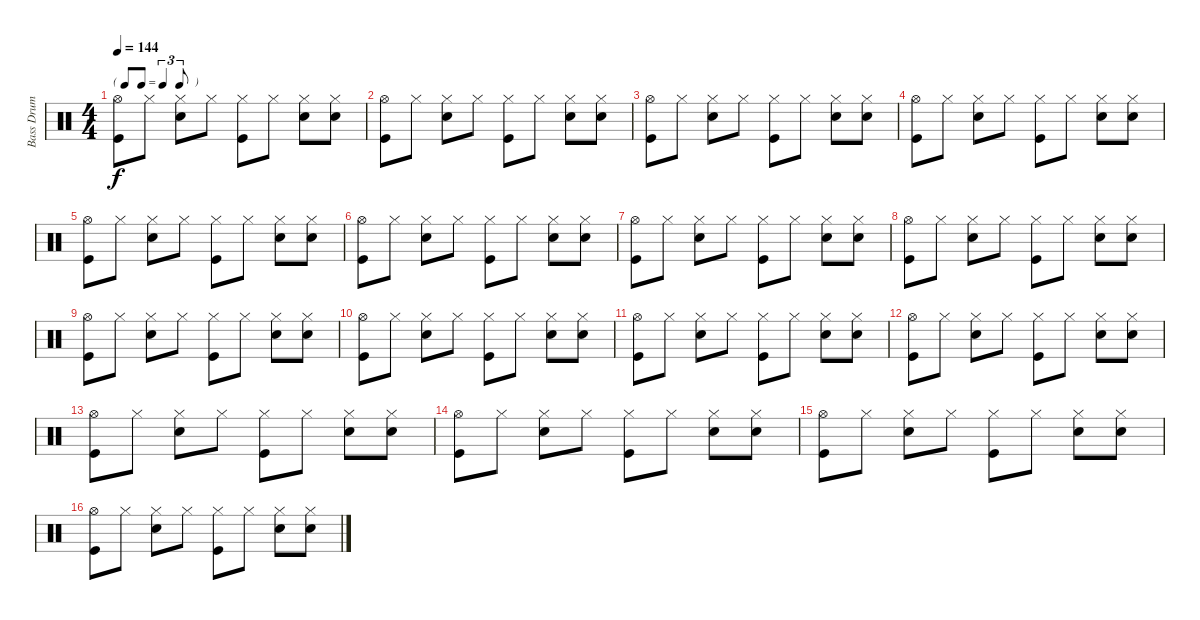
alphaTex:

\track ("Bass Drum           " "Bass Drum ") {instrument percussion}
\staff {score}
\articulation defaults
\ts (4 4)
\tf triplet8th
\tempo 144
\clef neutral
\ks c
("Kick (hit)" "Hi-Hat (open)").8{dy f} "Hi-Hat (closed)".8 ("Snare (hit) 2" "Hi-Hat (closed)").8 "Hi-Hat (closed)".8 ("Kick (hit)" "Hi-Hat (closed)").8 "Hi-Hat (closed)".8 ("Snare (hit) 2" "Hi-Hat (closed)").8 ("Snare (hit) 2" "Hi-Hat (closed)").8 |
("Kick (hit)" "Hi-Hat (open)").8 "Hi-Hat (closed)".8 ("Snare (hit) 2" "Hi-Hat (closed)").8 "Hi-Hat (closed)".8 ("Kick (hit)" "Hi-Hat (closed)").8 "Hi-Hat (closed)".8 ("Snare (hit) 2" "Hi-Hat (closed)").8 ("Snare (hit) 2" "Hi-Hat (closed)").8 |
("Kick (hit)" "Hi-Hat (open)").8 "Hi-Hat (closed)".8 ("Snare (hit) 2" "Hi-Hat (closed)").8 "Hi-Hat (closed)".8 ("Kick (hit)" "Hi-Hat (closed)").8 "Hi-Hat (closed)".8 ("Snare (hit) 2" "Hi-Hat (closed)").8 ("Snare (hit) 2" "Hi-Hat (closed)").8 |
("Kick (hit)" "Hi-Hat (open)").8 "Hi-Hat (closed)".8 ("Snare (hit) 2" "Hi-Hat (closed)").8 "Hi-Hat (closed)".8 ("Kick (hit)" "Hi-Hat (closed)").8 "Hi-Hat (closed)".8 ("Snare (hit) 2" "Hi-Hat (closed)").8 ("Snare (hit) 2" "Hi-Hat (closed)").8 |
("Kick (hit)" "Hi-Hat (open)").8 "Hi-Hat (closed)".8 ("Snare (hit) 2" "Hi-Hat (closed)").8 "Hi-Hat (closed)".8 ("Kick (hit)" "Hi-Hat (closed)").8 "Hi-Hat (closed)".8 ("Snare (hit) 2" "Hi-Hat (closed)").8 ("Snare (hit) 2" "Hi-Hat (closed)").8 |
("Kick (hit)" "Hi-Hat (open)").8 "Hi-Hat (closed)".8 ("Snare (hit) 2" "Hi-Hat (closed)").8 "Hi-Hat (closed)".8 ("Kick (hit)" "Hi-Hat (closed)").8 "Hi-Hat (closed)".8 ("Snare (hit) 2" "Hi-Hat (closed)").8 ("Snare (hit) 2" "Hi-Hat (closed)").8 |
("Kick (hit)" "Hi-Hat (open)").8 "Hi-Hat (closed)".8 ("Snare (hit) 2" "Hi-Hat (closed)").8 "Hi-Hat (closed)".8 ("Kick (hit)" "Hi-Hat (closed)").8 "Hi-Hat (closed)".8 ("Snare (hit) 2" "Hi-Hat (closed)").8 ("Snare (hit) 2" "Hi-Hat (closed)").8 |
("Kick (hit)" "Hi-Hat (open)").8 "Hi-Hat (closed)".8 ("Snare (hit) 2" "Hi-Hat (closed)").8 "Hi-Hat (closed)".8 ("Kick (hit)" "Hi-Hat (closed)").8 "Hi-Hat (closed)".8 ("Snare (hit) 2" "Hi-Hat (closed)").8 ("Snare (hit) 2" "Hi-Hat (closed)").8 |
("Kick (hit)" "Hi-Hat (open)").8 "Hi-Hat (closed)".8 ("Snare (hit) 2" "Hi-Hat (closed)").8 "Hi-Hat (closed)".8 ("Kick (hit)" "Hi-Hat (closed)").8 "Hi-Hat (closed)".8 ("Snare (hit) 2" "Hi-Hat (closed)").8 ("Snare (hit) 2" "Hi-Hat (closed)").8 |
("Kick (hit)" "Hi-Hat (open)").8 "Hi-Hat (closed)".8 ("Snare (hit) 2" "Hi-Hat (closed)").8 "Hi-Hat (closed)".8 ("Kick (hit)" "Hi-Hat (closed)").8 "Hi-Hat (closed)".8 ("Snare (hit) 2" "Hi-Hat (closed)").8 ("Snare (hit) 2" "Hi-Hat (closed)").8 |
("Kick (hit)" "Hi-Hat (open)").8 "Hi-Hat (closed)".8 ("Snare (hit) 2" "Hi-Hat (closed)").8 "Hi-Hat (closed)".8 ("Kick (hit)" "Hi-Hat (closed)").8 "Hi-Hat (closed)".8 ("Snare (hit) 2" "Hi-Hat (closed)").8 ("Snare (hit) 2" "Hi-Hat (closed)").8 |
("Kick (hit)" "Hi-Hat (open)").8 "Hi-Hat (closed)".8 ("Snare (hit) 2" "Hi-Hat (closed)").8 "Hi-Hat (closed)".8 ("Kick (hit)" "Hi-Hat (closed)").8 "Hi-Hat (closed)".8 ("Snare (hit) 2" "Hi-Hat (closed)").8 ("Snare (hit) 2" "Hi-Hat (closed)").8 |
("Kick (hit)" "Hi-Hat (open)").8 "Hi-Hat (closed)".8 ("Snare (hit) 2" "Hi-Hat (closed)").8 "Hi-Hat (closed)".8 ("Kick (hit)" "Hi-Hat (closed)").8 "Hi-Hat (closed)".8 ("Snare (hit) 2" "Hi-Hat (closed)").8 ("Snare (hit) 2" "Hi-Hat (closed)").8 |
("Kick (hit)" "Hi-Hat (open)").8 "Hi-Hat (closed)".8 ("Snare (hit) 2" "Hi-Hat (closed)").8 "Hi-Hat (closed)".8 ("Kick (hit)" "Hi-Hat (closed)").8 "Hi-Hat (closed)".8 ("Snare (hit) 2" "Hi-Hat (closed)").8 ("Snare (hit) 2" "Hi-Hat (closed)").8 |
("Kick (hit)" "Hi-Hat (open)").8 "Hi-Hat (closed)".8 ("Snare (hit) 2" "Hi-Hat (closed)").8 "Hi-Hat (closed)".8 ("Kick (hit)" "Hi-Hat (closed)").8 "Hi-Hat (closed)".8 ("Snare (hit) 2" "Hi-Hat (closed)").8 ("Snare (hit) 2" "Hi-Hat (closed)").8 |
("Kick (hit)" "Hi-Hat (open)").8 "Hi-Hat (closed)".8 ("Snare (hit) 2" "Hi-Hat (closed)").8 "Hi-Hat (closed)".8 ("Kick (hit)" "Hi-Hat (closed)").8 "Hi-Hat (closed)".8 ("Snare (hit) 2" "Hi-Hat (closed)").8 ("Snare (hit) 2" "Hi-Hat (closed)").8
